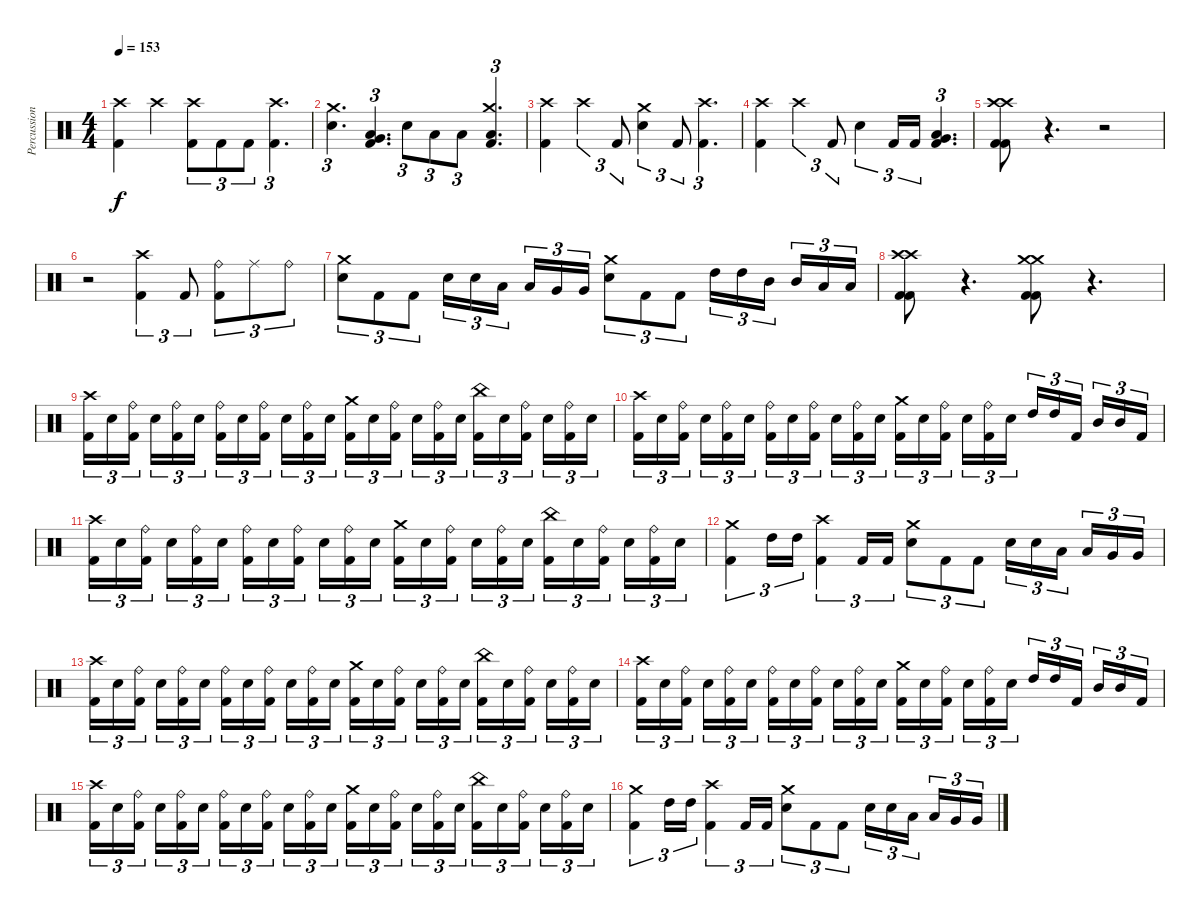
\track ("Percussion" "Percussion") {instrument percussion}
\staff {score}
\articulation defaults
\ts (4 4)
\tempo 153
\clef neutral
\ks c
("Crash high (hit)" "Kick (hit) 2").4{dy f} "Crash high (hit)".4 ("Crash high (hit)" "Kick (hit) 2").8{tu (3 2)} "Kick (hit) 2".8{tu (3 2)} "Kick (hit) 2".8{tu (3 2)} ("Crash high (hit)" "Kick (hit) 2").4{d tu (3 2)} |
("Crash medium (hit)" "Snare (hit) 2").4{d tu (3 2)} ("Low Floor Tom (hit)" "Very Low Tom (hit)" "Kick (hit) 2").4{d tu (3 2)} "Snare (hit) 2".8{tu (3 2)} "Low Tom (hit)".8{tu (3 2)} "Low Tom (hit)".8{tu (3 2)} ("Crash medium (hit)" "Low Floor Tom (hit)" "Kick (hit) 2").4{d tu (3 2)} |
("Crash high (hit)" "Kick (hit) 2").4 "Crash high (hit)".4{tu (3 2)} "Kick (hit) 2".8{tu (3 2)} ("Crash medium (hit)" "Snare (hit) 2").4{tu (3 2)} "Kick (hit) 2".8{tu (3 2)} ("Crash high (hit)" "Kick (hit) 2").4{d tu (3 2)} |
("Crash high (hit)" "Kick (hit) 2").4 "Crash high (hit)".4{tu (3 2)} "Kick (hit) 2".8{tu (3 2)} "Snare (hit) 2".4{tu (3 2)} "Kick (hit) 2".16{tu (3 2)} "Kick (hit) 2".16{tu (3 2)} ("Kick (hit) 2" "Low Floor Tom (hit)" "Very Low Tom (hit)").4{d tu (3 2)} |
("Crash high (hit)" "Crash high (hit)" "Kick (hit) 2" "Kick (hit) 2").8 r.4{d volume 0} r.2 |
r.2 ("Crash high (hit)" "Kick (hit) 2").4{tu (3 2) volume 16} "Kick (hit) 2".8{tu (3 2)} ("Ride (bell)" "Kick (hit) 2").8{tu (3 2)} "Ride (middle)".8{tu (3 2)} "Ride (bell)".8{tu (3 2)} |
("Crash medium (hit)" "Snare (hit) 2").8{tu (3 2)} "Kick (hit) 2".8{tu (3 2)} "Kick (hit) 2".8{tu (3 2)} "Snare (hit) 2".16{tu (3 2)} "Snare (hit) 2".16{tu (3 2)} "Low Tom (hit)".16{tu (3 2) beam splitsecondary} "Low Tom (hit)".16{tu (3 2)} "Very Low Tom (hit)".16{tu (3 2)} "Very Low Tom (hit)".16{tu (3 2)} ("Crash medium (hit)" "Snare (hit) 2").8{tu (3 2)} "Kick (hit) 2".8{tu (3 2)} "Kick (hit) 2".8{tu (3 2)} "High Tom (hit)".16{tu (3 2)} "High Tom (hit)".16{tu (3 2)} "Mid Tom (hit)".16{tu (3 2) beam splitsecondary} "Mid Tom (hit)".16{tu (3 2)} "Low Tom (hit)".16{tu (3 2)} "Low Tom (hit)".16{tu (3 2)} |
("Crash high (hit)" "Crash high (hit)" "Kick (hit) 2" "Kick (hit) 2").8{volume 16} r.4{d volume 0} ("Crash medium (hit)" "Crash medium (hit)" "Kick (hit) 2" "Kick (hit) 2").8{volume 16} r.4{d volume 0} |
("Crash high (hit)" "Kick (hit) 2").16{tu (3 2) volume 16} "Snare (hit) 2".16{tu (3 2)} ("Ride (bell)" "Kick (hit) 2").16{tu (3 2) beam splitsecondary} "Snare (hit) 2".16{tu (3 2)} ("Ride (bell)" "Kick (hit) 2").16{tu (3 2)} "Snare (hit) 2".16{tu (3 2)} ("Ride (bell)" "Kick (hit) 2").16{tu (3 2)} "Snare (hit) 2".16{tu (3 2)} ("Ride (bell)" "Kick (hit) 2").16{tu (3 2) beam splitsecondary} "Snare (hit) 2".16{tu (3 2)} ("Ride (bell)" "Kick (hit) 2").16{tu (3 2)} "Snare (hit) 2".16{tu (3 2)} ("Crash medium (hit)" "Kick (hit) 2").16{tu (3 2)} "Snare (hit) 2".16{tu (3 2)} ("Ride (bell)" "Kick (hit) 2").16{tu (3 2) beam splitsecondary} "Snare (hit) 2".16{tu (3 2)} ("Ride (bell)" "Kick (hit) 2").16{tu (3 2)} "Snare (hit) 2".16{tu (3 2)} ("China (hit)" "Kick (hit) 2").16{tu (3 2)} "Snare (hit) 2".16{tu (3 2)} ("Ride (bell)" "Kick (hit) 2").16{tu (3 2) beam splitsecondary} "Snare (hit) 2".16{tu (3 2)} ("Ride (bell)" "Kick (hit) 2").16{tu (3 2)} "Snare (hit) 2".16{tu (3 2)} |
("Crash high (hit)" "Kick (hit) 2").16{tu (3 2)} "Snare (hit) 2".16{tu (3 2)} ("Ride (bell)" "Kick (hit) 2").16{tu (3 2) beam splitsecondary} "Snare (hit) 2".16{tu (3 2)} ("Ride (bell)" "Kick (hit) 2").16{tu (3 2)} "Snare (hit) 2".16{tu (3 2)} ("Ride (bell)" "Kick (hit) 2").16{tu (3 2)} "Snare (hit) 2".16{tu (3 2)} ("Ride (bell)" "Kick (hit) 2").16{tu (3 2) beam splitsecondary} "Snare (hit) 2".16{tu (3 2)} ("Ride (bell)" "Kick (hit) 2").16{tu (3 2)} "Snare (hit) 2".16{tu (3 2)} ("Crash medium (hit)" "Kick (hit) 2").16{tu (3 2)} "Snare (hit) 2".16{tu (3 2)} ("Ride (bell)" "Kick (hit) 2").16{tu (3 2) beam splitsecondary} "Snare (hit) 2".16{tu (3 2)} ("Ride (bell)" "Kick (hit) 2").16{tu (3 2)} "Snare (hit) 2".16{tu (3 2)} "High Tom (hit)".16{tu (3 2)} "High Tom (hit)".16{tu (3 2)} "Kick (hit) 2".16{tu (3 2) beam splitsecondary} "Mid Tom (hit)".16{tu (3 2)} "Mid Tom (hit)".16{tu (3 2)} "Kick (hit) 2".16{tu (3 2)} |
("Crash high (hit)" "Kick (hit) 2").16{tu (3 2)} "Snare (hit) 2".16{tu (3 2)} ("Ride (bell)" "Kick (hit) 2").16{tu (3 2) beam splitsecondary} "Snare (hit) 2".16{tu (3 2)} ("Ride (bell)" "Kick (hit) 2").16{tu (3 2)} "Snare (hit) 2".16{tu (3 2)} ("Ride (bell)" "Kick (hit) 2").16{tu (3 2)} "Snare (hit) 2".16{tu (3 2)} ("Ride (bell)" "Kick (hit) 2").16{tu (3 2) beam splitsecondary} "Snare (hit) 2".16{tu (3 2)} ("Ride (bell)" "Kick (hit) 2").16{tu (3 2)} "Snare (hit) 2".16{tu (3 2)} ("Crash medium (hit)" "Kick (hit) 2").16{tu (3 2)} "Snare (hit) 2".16{tu (3 2)} ("Ride (bell)" "Kick (hit) 2").16{tu (3 2) beam splitsecondary} "Snare (hit) 2".16{tu (3 2)} ("Ride (bell)" "Kick (hit) 2").16{tu (3 2)} "Snare (hit) 2".16{tu (3 2)} ("China (hit)" "Kick (hit) 2").16{tu (3 2)} "Snare (hit) 2".16{tu (3 2)} ("Ride (bell)" "Kick (hit) 2").16{tu (3 2) beam splitsecondary} "Snare (hit) 2".16{tu (3 2)} ("Ride (bell)" "Kick (hit) 2").16{tu (3 2)} "Snare (hit) 2".16{tu (3 2)} |
("Crash medium (hit)" "Kick (hit) 2").4{tu (3 2)} "High Tom (hit)".16{tu (3 2)} "High Tom (hit)".16{tu (3 2)} ("Crash high (hit)" "Kick (hit) 2").4{tu (3 2)} "Kick (hit) 2".16{tu (3 2)} "Kick (hit) 2".16{tu (3 2)} ("Crash medium (hit)" "Snare (hit) 2").8{tu (3 2)} "Kick (hit) 2".8{tu (3 2)} "Kick (hit) 2".8{tu (3 2)} "Snare (hit) 2".16{tu (3 2)} "Snare (hit) 2".16{tu (3 2)} "Low Tom (hit)".16{tu (3 2) beam splitsecondary} "Low Tom (hit)".16{tu (3 2)} "Very Low Tom (hit)".16{tu (3 2)} "Very Low Tom (hit)".16{tu (3 2)} |
("Crash high (hit)" "Kick (hit) 2").16{tu (3 2)} "Snare (hit) 2".16{tu (3 2)} ("Ride (bell)" "Kick (hit) 2").16{tu (3 2) beam splitsecondary} "Snare (hit) 2".16{tu (3 2)} ("Ride (bell)" "Kick (hit) 2").16{tu (3 2)} "Snare (hit) 2".16{tu (3 2)} ("Ride (bell)" "Kick (hit) 2").16{tu (3 2)} "Snare (hit) 2".16{tu (3 2)} ("Ride (bell)" "Kick (hit) 2").16{tu (3 2) beam splitsecondary} "Snare (hit) 2".16{tu (3 2)} ("Ride (bell)" "Kick (hit) 2").16{tu (3 2)} "Snare (hit) 2".16{tu (3 2)} ("Crash medium (hit)" "Kick (hit) 2").16{tu (3 2)} "Snare (hit) 2".16{tu (3 2)} ("Ride (bell)" "Kick (hit) 2").16{tu (3 2) beam splitsecondary} "Snare (hit) 2".16{tu (3 2)} ("Ride (bell)" "Kick (hit) 2").16{tu (3 2)} "Snare (hit) 2".16{tu (3 2)} ("China (hit)" "Kick (hit) 2").16{tu (3 2)} "Snare (hit) 2".16{tu (3 2)} ("Ride (bell)" "Kick (hit) 2").16{tu (3 2) beam splitsecondary} "Snare (hit) 2".16{tu (3 2)} ("Ride (bell)" "Kick (hit) 2").16{tu (3 2)} "Snare (hit) 2".16{tu (3 2)} |
("Crash high (hit)" "Kick (hit) 2").16{tu (3 2)} "Snare (hit) 2".16{tu (3 2)} ("Ride (bell)" "Kick (hit) 2").16{tu (3 2) beam splitsecondary} "Snare (hit) 2".16{tu (3 2)} ("Ride (bell)" "Kick (hit) 2").16{tu (3 2)} "Snare (hit) 2".16{tu (3 2)} ("Ride (bell)" "Kick (hit) 2").16{tu (3 2)} "Snare (hit) 2".16{tu (3 2)} ("Ride (bell)" "Kick (hit) 2").16{tu (3 2) beam splitsecondary} "Snare (hit) 2".16{tu (3 2)} ("Ride (bell)" "Kick (hit) 2").16{tu (3 2)} "Snare (hit) 2".16{tu (3 2)} ("Crash medium (hit)" "Kick (hit) 2").16{tu (3 2)} "Snare (hit) 2".16{tu (3 2)} ("Ride (bell)" "Kick (hit) 2").16{tu (3 2) beam splitsecondary} "Snare (hit) 2".16{tu (3 2)} ("Ride (bell)" "Kick (hit) 2").16{tu (3 2)} "Snare (hit) 2".16{tu (3 2)} "High Tom (hit)".16{tu (3 2)} "High Tom (hit)".16{tu (3 2)} "Kick (hit) 2".16{tu (3 2) beam splitsecondary} "Mid Tom (hit)".16{tu (3 2)} "Mid Tom (hit)".16{tu (3 2)} "Kick (hit) 2".16{tu (3 2)} |
("Crash high (hit)" "Kick (hit) 2").16{tu (3 2)} "Snare (hit) 2".16{tu (3 2)} ("Ride (bell)" "Kick (hit) 2").16{tu (3 2) beam splitsecondary} "Snare (hit) 2".16{tu (3 2)} ("Ride (bell)" "Kick (hit) 2").16{tu (3 2)} "Snare (hit) 2".16{tu (3 2)} ("Ride (bell)" "Kick (hit) 2").16{tu (3 2)} "Snare (hit) 2".16{tu (3 2)} ("Ride (bell)" "Kick (hit) 2").16{tu (3 2) beam splitsecondary} "Snare (hit) 2".16{tu (3 2)} ("Ride (bell)" "Kick (hit) 2").16{tu (3 2)} "Snare (hit) 2".16{tu (3 2)} ("Crash medium (hit)" "Kick (hit) 2").16{tu (3 2)} "Snare (hit) 2".16{tu (3 2)} ("Ride (bell)" "Kick (hit) 2").16{tu (3 2) beam splitsecondary} "Snare (hit) 2".16{tu (3 2)} ("Ride (bell)" "Kick (hit) 2").16{tu (3 2)} "Snare (hit) 2".16{tu (3 2)} ("China (hit)" "Kick (hit) 2").16{tu (3 2)} "Snare (hit) 2".16{tu (3 2)} ("Ride (bell)" "Kick (hit) 2").16{tu (3 2) beam splitsecondary} "Snare (hit) 2".16{tu (3 2)} ("Ride (bell)" "Kick (hit) 2").16{tu (3 2)} "Snare (hit) 2".16{tu (3 2)} |
("Crash medium (hit)" "Kick (hit) 2").4{tu (3 2)} "High Tom (hit)".16{tu (3 2)} "High Tom (hit)".16{tu (3 2)} ("Crash high (hit)" "Kick (hit) 2").4{tu (3 2)} "Kick (hit) 2".16{tu (3 2)} "Kick (hit) 2".16{tu (3 2)} ("Crash medium (hit)" "Snare (hit) 2").8{tu (3 2)} "Kick (hit) 2".8{tu (3 2)} "Kick (hit) 2".8{tu (3 2)} "Snare (hit) 2".16{tu (3 2)} "Snare (hit) 2".16{tu (3 2)} "Low Tom (hit)".16{tu (3 2) beam splitsecondary} "Low Tom (hit)".16{tu (3 2)} "Very Low Tom (hit)".16{tu (3 2)} "Very Low Tom (hit)".16{tu (3 2)}
